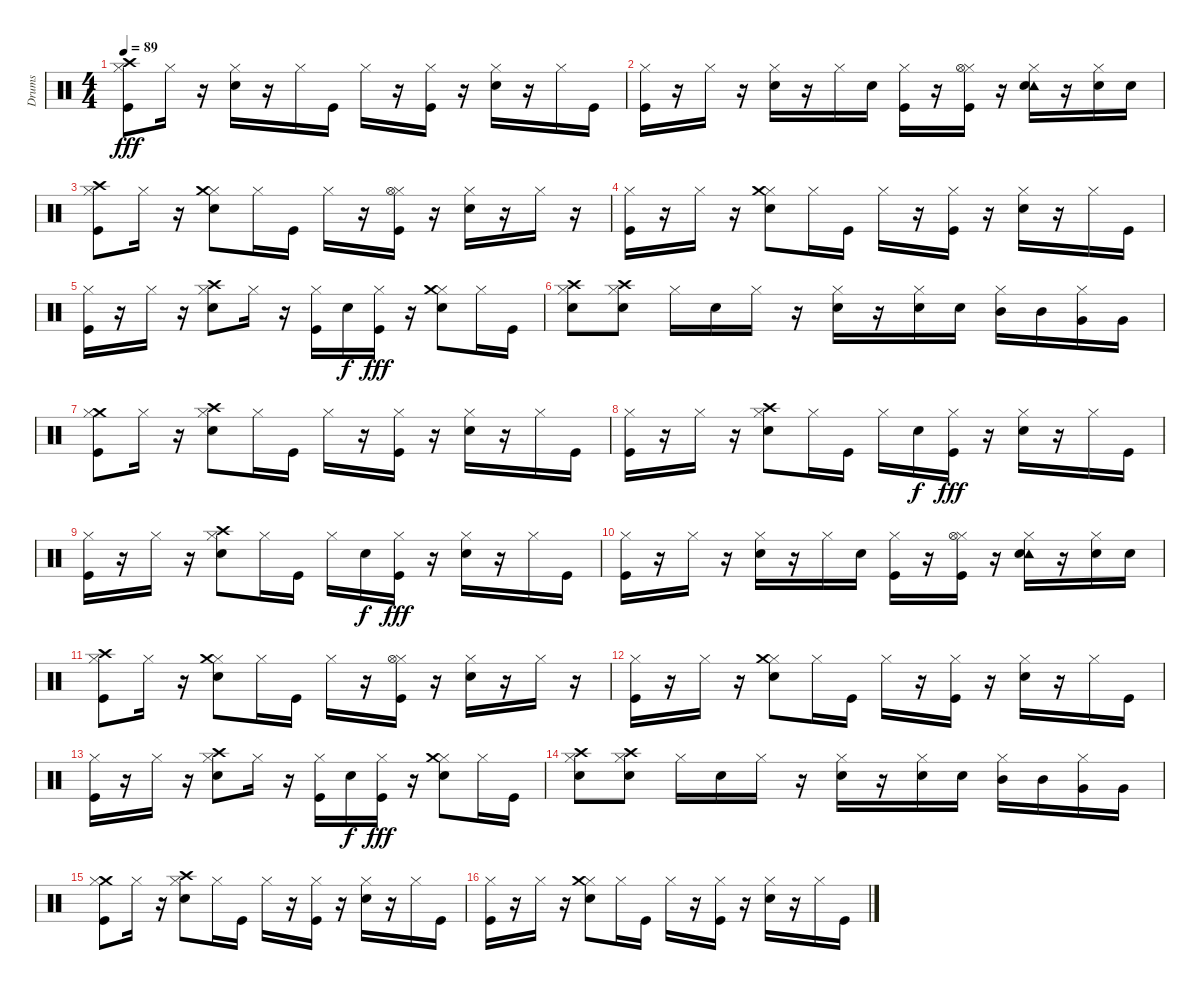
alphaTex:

\track ("Drums" "Drums") {instrument percussion}
\staff {score}
\articulation defaults
\ts (4 4)
\tempo 89
\clef neutral
\ks c
("Hi-Hat (closed)" "Kick (hit)" "Crash high (hit)").8{dy fff} "Hi-Hat (closed)".16 r.16 ("Hi-Hat (closed)" "Snare (hit) 2").16 r.16 "Hi-Hat (closed)".16 "Kick (hit)".16 "Hi-Hat (closed)".16 r.16 ("Hi-Hat (closed)" "Kick (hit)").16 r.16 ("Hi-Hat (closed)" "Snare (hit) 2").16 r.16 "Hi-Hat (closed)".16 "Kick (hit)".16 |
("Kick (hit)" "Hi-Hat (closed)").16 r.16 "Hi-Hat (closed)".16 r.16 ("Hi-Hat (closed)" "Snare (hit) 2").16 r.16 "Hi-Hat (closed)".16 "Snare (hit) 2".16 ("Hi-Hat (closed)" "Kick (hit)").16 r.16 ("Hi-Hat (closed)" "Hi-Hat (open)" "Kick (hit)").16 r.16 ("Tambourine (hit)" "Hi-Hat (closed)" "Snare (hit) 2").16 r.16 ("Hi-Hat (closed)" "Snare (hit) 2").16 "Snare (hit) 2".16 |
("Kick (hit)" "Hi-Hat (closed)" "Crash high (hit)").8 "Hi-Hat (closed)".16 r.16 ("Hi-Hat (closed)" "Crash medium (hit)" "Snare (hit) 2").8 "Hi-Hat (closed)".16 "Kick (hit)".16 "Hi-Hat (closed)".16 r.16 ("Hi-Hat (closed)" "Kick (hit)" "Hi-Hat (open)").16 r.16 ("Hi-Hat (closed)" "Snare (hit) 2").16 r.16 "Hi-Hat (closed)".16 r.16 |
("Kick (hit)" "Hi-Hat (closed)").16 r.16 "Hi-Hat (closed)".16 r.16 ("Hi-Hat (closed)" "Crash medium (hit)" "Snare (hit) 2").8 "Hi-Hat (closed)".16 "Kick (hit)".16 "Hi-Hat (closed)".16 r.16 ("Hi-Hat (closed)" "Kick (hit)").16 r.16 ("Hi-Hat (closed)" "Snare (hit) 2").16 r.16 "Hi-Hat (closed)".16 "Kick (hit)".16 |
("Hi-Hat (closed)" "Kick (hit)").16 r.16 "Hi-Hat (closed)".16 r.16 ("Hi-Hat (closed)" "Crash high (hit)" "Snare (hit) 2").8 "Hi-Hat (closed)".16 r.16 ("Hi-Hat (closed)" "Kick (hit)").16 "Snare (hit) 2".16{dy f} ("Hi-Hat (closed)" "Kick (hit)").16{dy fff} r.16 ("Hi-Hat (closed)" "Crash medium (hit)" "Snare (hit) 2").8 "Hi-Hat (closed)".16 "Kick (hit)".16 |
("Crash high (hit)" "Hi-Hat (closed)" "Snare (hit) 2").8 ("Crash high (hit)" "Hi-Hat (closed)" "Snare (hit) 2").8 "Hi-Hat (closed)".16 "Snare (hit) 2".16 "Hi-Hat (closed)".16 r.16 ("Hi-Hat (closed)" "Snare (hit) 2").16 r.16 ("Hi-Hat (closed)" "Snare (hit) 2").16 "Snare (hit) 2".16 ("Mid Tom (hit)" "Hi-Hat (closed)").16 "Mid Tom (hit)".16 ("Very Low Tom (hit)" "Hi-Hat (closed)").16 "Very Low Tom (hit)".16 |
("Crash medium (hit)" "Hi-Hat (closed)" "Kick (hit)").8 "Hi-Hat (closed)".16 r.16 ("Hi-Hat (closed)" "Crash high (hit)" "Snare (hit) 2").8 "Hi-Hat (closed)".16 "Kick (hit)".16 "Hi-Hat (closed)".16 r.16 ("Hi-Hat (closed)" "Kick (hit)").16 r.16 ("Hi-Hat (closed)" "Snare (hit) 2").16 r.16 "Hi-Hat (closed)".16 "Kick (hit)".16 |
("Hi-Hat (closed)" "Kick (hit)").16 r.16 "Hi-Hat (closed)".16 r.16 ("Hi-Hat (closed)" "Crash high (hit)" "Snare (hit) 2").8 "Hi-Hat (closed)".16 "Kick (hit)".16 "Hi-Hat (closed)".16 "Snare (hit) 2".16{dy f} ("Hi-Hat (closed)" "Kick (hit)").16{dy fff} r.16 ("Hi-Hat (closed)" "Snare (hit) 2").16 r.16 "Hi-Hat (closed)".16 "Kick (hit)".16 |
("Kick (hit)" "Hi-Hat (closed)").16 r.16 "Hi-Hat (closed)".16 r.16 ("Hi-Hat (closed)" "Crash high (hit)" "Snare (hit) 2").8 "Hi-Hat (closed)".16 "Kick (hit)".16 "Hi-Hat (closed)".16 "Snare (hit) 2".16{dy f} ("Hi-Hat (closed)" "Kick (hit)").16{dy fff} r.16 ("Hi-Hat (closed)" "Snare (hit) 2").16 r.16 "Hi-Hat (closed)".16 "Kick (hit)".16 |
("Hi-Hat (closed)" "Kick (hit)").16 r.16 "Hi-Hat (closed)".16 r.16 ("Hi-Hat (closed)" "Snare (hit) 2").16 r.16 "Hi-Hat (closed)".16 "Snare (hit) 2".16 ("Hi-Hat (closed)" "Kick (hit)").16 r.16 ("Hi-Hat (closed)" "Hi-Hat (open)" "Kick (hit)").16 r.16 ("Tambourine (hit)" "Hi-Hat (closed)" "Snare (hit) 2").16 r.16 ("Hi-Hat (closed)" "Snare (hit) 2").16 "Snare (hit) 2".16 |
("Kick (hit)" "Hi-Hat (closed)" "Crash high (hit)").8 "Hi-Hat (closed)".16 r.16 ("Hi-Hat (closed)" "Crash medium (hit)" "Snare (hit) 2").8 "Hi-Hat (closed)".16 "Kick (hit)".16 "Hi-Hat (closed)".16 r.16 ("Hi-Hat (closed)" "Kick (hit)" "Hi-Hat (open)").16 r.16 ("Hi-Hat (closed)" "Snare (hit) 2").16 r.16 "Hi-Hat (closed)".16 r.16 |
("Kick (hit)" "Hi-Hat (closed)").16 r.16 "Hi-Hat (closed)".16 r.16 ("Hi-Hat (closed)" "Crash medium (hit)" "Snare (hit) 2").8 "Hi-Hat (closed)".16 "Kick (hit)".16 "Hi-Hat (closed)".16 r.16 ("Hi-Hat (closed)" "Kick (hit)").16 r.16 ("Hi-Hat (closed)" "Snare (hit) 2").16 r.16 "Hi-Hat (closed)".16 "Kick (hit)".16 |
("Hi-Hat (closed)" "Kick (hit)").16 r.16 "Hi-Hat (closed)".16 r.16 ("Hi-Hat (closed)" "Crash high (hit)" "Snare (hit) 2").8 "Hi-Hat (closed)".16 r.16 ("Hi-Hat (closed)" "Kick (hit)").16 "Snare (hit) 2".16{dy f} ("Hi-Hat (closed)" "Kick (hit)").16{dy fff} r.16 ("Hi-Hat (closed)" "Crash medium (hit)" "Snare (hit) 2").8 "Hi-Hat (closed)".16 "Kick (hit)".16 |
("Crash high (hit)" "Hi-Hat (closed)" "Snare (hit) 2").8 ("Crash high (hit)" "Hi-Hat (closed)" "Snare (hit) 2").8 "Hi-Hat (closed)".16 "Snare (hit) 2".16 "Hi-Hat (closed)".16 r.16 ("Hi-Hat (closed)" "Snare (hit) 2").16 r.16 ("Hi-Hat (closed)" "Snare (hit) 2").16 "Snare (hit) 2".16 ("Mid Tom (hit)" "Hi-Hat (closed)").16 "Mid Tom (hit)".16 ("Very Low Tom (hit)" "Hi-Hat (closed)").16 "Very Low Tom (hit)".16 |
("Crash medium (hit)" "Hi-Hat (closed)" "Kick (hit)").8 "Hi-Hat (closed)".16 r.16 ("Hi-Hat (closed)" "Crash high (hit)" "Snare (hit) 2").8 "Hi-Hat (closed)".16 "Kick (hit)".16 "Hi-Hat (closed)".16 r.16 ("Hi-Hat (closed)" "Kick (hit)").16 r.16 ("Hi-Hat (closed)" "Snare (hit) 2").16 r.16 "Hi-Hat (closed)".16 "Kick (hit)".16 |
("Hi-Hat (closed)" "Kick (hit)").16 r.16 "Hi-Hat (closed)".16 r.16 ("Hi-Hat (closed)" "Crash medium (hit)" "Snare (hit) 2").8 "Hi-Hat (closed)".16 "Kick (hit)".16 "Hi-Hat (closed)".16 r.16 ("Hi-Hat (closed)" "Kick (hit)").16 r.16 ("Hi-Hat (closed)" "Snare (hit) 2").16 r.16 "Hi-Hat (closed)".16 "Kick (hit)".16
